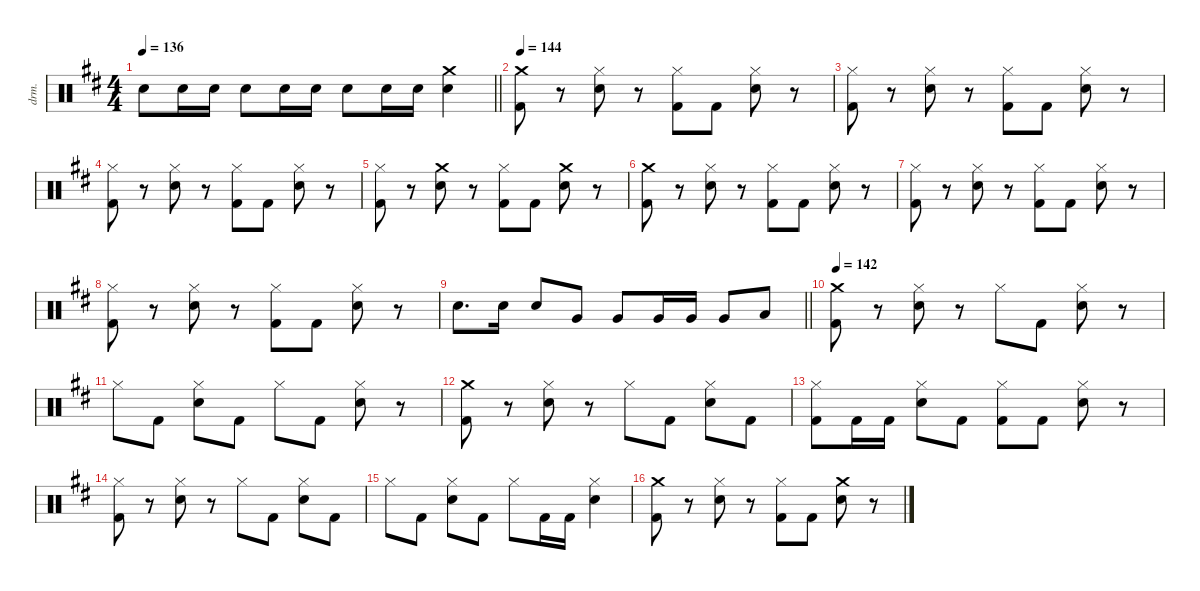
\defaultSystemsLayout 4
\hideDynamics
\bracketExtendMode nobrackets
\otherSystemsTrackNameOrientation horizontal
\track ("Lars - Drums" "drm.") {defaultSystemsLayout 4 instrument percussion}
\staff {score}
\articulation defaults
\ts (4 4)
\tempo 136
\clef neutral
\barLineRight lightlight
\ks bminor "Snare (hit) 2"{acc forcenatural}.8{dy f beam Down} "Snare (hit) 2"{acc forcenatural}.16{beam Down} "Snare (hit) 2"{acc forcenatural}.16{beam Down} "Snare (hit) 2"{acc forcenatural}.8{beam Down} "Snare (hit) 2"{acc forcenatural}.16{beam Down} "Snare (hit) 2"{acc forcenatural}.16{beam Down} "Snare (hit) 2"{acc forcenatural}.8{beam Down} "Snare (hit) 2"{acc forcenatural}.16{beam Down} "Snare (hit) 2"{acc forcenatural}.16{beam Down}
("Crash medium (hit)"{acc forcenatural} "Snare (hit) 2"{acc forcenatural}).4{beam Down} |
\tempo 144
("Crash medium (hit)"{acc forcenatural} "Kick (hit) 2"{acc forcenatural}).8{beam Down} r.8{beam Down} ("Hi-Hat (closed)"{acc forcenatural} "Snare (hit) 2"{acc forcenatural}).8{beam Down} r.8{beam Down} ("Hi-Hat (closed)"{acc forcenatural} "Kick (hit) 2"{acc forcenatural}).8{beam Down} "Kick (hit) 2"{acc forcenatural}.8{beam Down} ("Hi-Hat (closed)"{acc forcenatural} "Snare (hit) 2"{acc forcenatural}).8{beam Down} r.8{beam Down} |
("Hi-Hat (closed)"{acc forcenatural} "Kick (hit) 2"{acc forcenatural}).8{beam Down} r.8{beam Down} ("Hi-Hat (closed)"{acc forcenatural} "Snare (hit) 2"{acc forcenatural}).8{beam Down} r.8{beam Down} ("Hi-Hat (closed)"{acc forcenatural} "Kick (hit) 2"{acc forcenatural}).8{beam Down} "Kick (hit) 2"{acc forcenatural}.8{beam Down} ("Hi-Hat (closed)"{acc forcenatural} "Snare (hit) 2"{acc forcenatural}).8{beam Down} r.8{beam Down} |
("Hi-Hat (closed)"{acc forcenatural} "Kick (hit) 2"{acc forcenatural}).8{beam Down} r.8{beam Down} ("Hi-Hat (closed)"{acc forcenatural} "Snare (hit) 2"{acc forcenatural}).8{beam Down} r.8{beam Down} ("Hi-Hat (closed)"{acc forcenatural} "Kick (hit) 2"{acc forcenatural}).8{beam Down} "Kick (hit) 2"{acc forcenatural}.8{beam Down} ("Hi-Hat (closed)"{acc forcenatural} "Snare (hit) 2"{acc forcenatural}).8{beam Down} r.8{beam Down} |
("Hi-Hat (closed)"{acc forcenatural} "Kick (hit) 2"{acc forcenatural}).8{beam Down} r.8{beam Down} ("Crash medium (hit)"{acc forcenatural} "Snare (hit) 2"{acc forcenatural}).8{beam Down} r.8{beam Down} ("Hi-Hat (closed)"{acc forcenatural} "Kick (hit) 2"{acc forcenatural}).8{beam Down} "Kick (hit) 2"{acc forcenatural}.8{beam Down} ("Crash medium (hit)"{acc forcenatural} "Snare (hit) 2"{acc forcenatural}).8{beam Down} r.8{beam Down} |
("Crash medium (hit)"{acc forcenatural} "Kick (hit) 2"{acc forcenatural}).8{beam Down} r.8{beam Down} ("Hi-Hat (closed)"{acc forcenatural} "Snare (hit) 2"{acc forcenatural}).8{beam Down} r.8{beam Down} ("Hi-Hat (closed)"{acc forcenatural} "Kick (hit) 2"{acc forcenatural}).8{beam Down} "Kick (hit) 2"{acc forcenatural}.8{beam Down} ("Hi-Hat (closed)"{acc forcenatural} "Snare (hit) 2"{acc forcenatural}).8{beam Down} r.8{beam Down} |
("Hi-Hat (closed)"{acc forcenatural} "Kick (hit) 2"{acc forcenatural}).8{beam Down} r.8{beam Down} ("Hi-Hat (closed)"{acc forcenatural} "Snare (hit) 2"{acc forcenatural}).8{beam Down} r.8{beam Down} ("Hi-Hat (closed)"{acc forcenatural} "Kick (hit) 2"{acc forcenatural}).8{beam Down} "Kick (hit) 2"{acc forcenatural}.8{beam Down} ("Hi-Hat (closed)"{acc forcenatural} "Snare (hit) 2"{acc forcenatural}).8{beam Down} r.8{beam Down} |
("Hi-Hat (closed)"{acc forcenatural} "Kick (hit) 2"{acc forcenatural}).8{beam Down} r.8{beam Down} ("Hi-Hat (closed)"{acc forcenatural} "Snare (hit) 2"{acc forcenatural}).8{beam Down} r.8{beam Down} ("Hi-Hat (closed)"{acc forcenatural} "Kick (hit) 2"{acc forcenatural}).8{beam Down} "Kick (hit) 2"{acc forcenatural}.8{beam Down} ("Hi-Hat (closed)"{acc forcenatural} "Snare (hit) 2"{acc forcenatural}).8{beam Down} r.8{beam Down} |
\barLineRight lightlight "Snare (hit) 2"{acc forcenatural}.8{d beam Down} "Snare (hit) 2"{acc forcenatural}.16{beam Down} "Snare (hit) 2"{acc forcenatural}.8{beam Up} "Very Low Tom (hit)"{acc forcenatural}.8{beam Up} "Very Low Tom (hit)"{acc forcenatural}.8{beam Up} "Very Low Tom (hit)"{acc forcenatural}.16{beam Up} "Very Low Tom (hit)"{acc forcenatural}.16{beam Up} "Very Low Tom (hit)"{acc forcenatural}.8{beam Up} "Low Floor Tom (hit)"{acc forcenatural}.8{beam Up}
|
\tempo 142
("Crash medium (hit)"{acc forcenatural} "Kick (hit) 2"{acc forcenatural}).8{beam Down} r.8{beam Down} ("Hi-Hat (closed)"{acc forcenatural} "Snare (hit) 2"{acc forcenatural}).8{beam Down} r.8{beam Down} "Hi-Hat (closed)"{acc forcenatural}.8{beam Down} "Kick (hit) 2"{acc forcenatural}.8{beam Down} ("Hi-Hat (closed)"{acc forcenatural} "Snare (hit) 2"{acc forcenatural}).8{beam Down} r.8{beam Down} |
"Hi-Hat (closed)"{acc forcenatural}.8{beam Down} "Kick (hit) 2"{acc forcenatural}.8{beam Down} ("Hi-Hat (closed)"{acc forcenatural} "Snare (hit) 2"{acc forcenatural}).8{beam Down} "Kick (hit) 2"{acc forcenatural}.8{beam Down} "Hi-Hat (closed)"{acc forcenatural}.8{beam Down} "Kick (hit) 2"{acc forcenatural}.8{beam Down} ("Hi-Hat (closed)"{acc forcenatural} "Snare (hit) 2"{acc forcenatural}).8{beam Down} r.8{beam Down} |
("Crash medium (hit)"{acc forcenatural} "Kick (hit) 2"{acc forcenatural}).8{beam Down} r.8{beam Down} ("Hi-Hat (closed)"{acc forcenatural} "Snare (hit) 2"{acc forcenatural}).8{beam Down} r.8{beam Down} "Hi-Hat (closed)"{acc forcenatural}.8{beam Down} "Kick (hit) 2"{acc forcenatural}.8{beam Down} ("Hi-Hat (closed)"{acc forcenatural} "Snare (hit) 2"{acc forcenatural}).8{beam Down} "Kick (hit) 2"{acc forcenatural}.8{beam Down} |
("Hi-Hat (closed)"{acc forcenatural} "Kick (hit) 2"{acc forcenatural}).8{beam Down} "Kick (hit) 2"{acc forcenatural}.16{beam Down} "Kick (hit) 2"{acc forcenatural}.16{beam Down} ("Hi-Hat (closed)"{acc forcenatural} "Snare (hit) 2"{acc forcenatural}).8{beam Down} "Kick (hit) 2"{acc forcenatural}.8{beam Down} ("Hi-Hat (closed)"{acc forcenatural} "Kick (hit) 2"{acc forcenatural}).8{beam Down} "Kick (hit) 2"{acc forcenatural}.8{beam Down} ("Hi-Hat (closed)"{acc forcenatural} "Snare (hit) 2"{acc forcenatural}).8{beam Down} r.8{beam Down} |
("Hi-Hat (closed)"{acc forcenatural} "Kick (hit) 2"{acc forcenatural}).8{beam Down} r.8{beam Down} ("Hi-Hat (closed)"{acc forcenatural} "Snare (hit) 2"{acc forcenatural}).8{beam Down} r.8{beam Down} "Hi-Hat (closed)"{acc forcenatural}.8{beam Down} "Kick (hit) 2"{acc forcenatural}.8{beam Down} ("Hi-Hat (closed)"{acc forcenatural} "Snare (hit) 2"{acc forcenatural}).8{beam Down} "Kick (hit) 2"{acc forcenatural}.8{beam Down} |
"Hi-Hat (closed)"{acc forcenatural}.8{beam Down} "Kick (hit) 2"{acc forcenatural}.8{beam Down} ("Hi-Hat (closed)"{acc forcenatural} "Snare (hit) 2"{acc forcenatural}).8{beam Down} "Kick (hit) 2"{acc forcenatural}.8{beam Down} "Hi-Hat (closed)"{acc forcenatural}.8{beam Down} "Kick (hit) 2"{acc forcenatural}.16{beam Down} "Kick (hit) 2"{acc forcenatural}.16{beam Down} ("Hi-Hat (closed)"{acc forcenatural} "Snare (hit) 2"{acc forcenatural}).4{beam Down} |
("Crash medium (hit)"{acc forcenatural} "Kick (hit) 2"{acc forcenatural}).8{beam Down} r.8{beam Down} ("Snare (hit) 2"{acc forcenatural} "Hi-Hat (closed)"{acc forcenatural}).8{beam Down} r.8{beam Down} ("Hi-Hat (closed)"{acc forcenatural} "Kick (hit) 2"{acc forcenatural}).8{beam Down} "Kick (hit) 2"{acc forcenatural}.8{beam Down} ("Crash medium (hit)"{acc forcenatural} "Snare (hit) 2"{acc forcenatural}).8{beam Down} r.8{beam Down}
